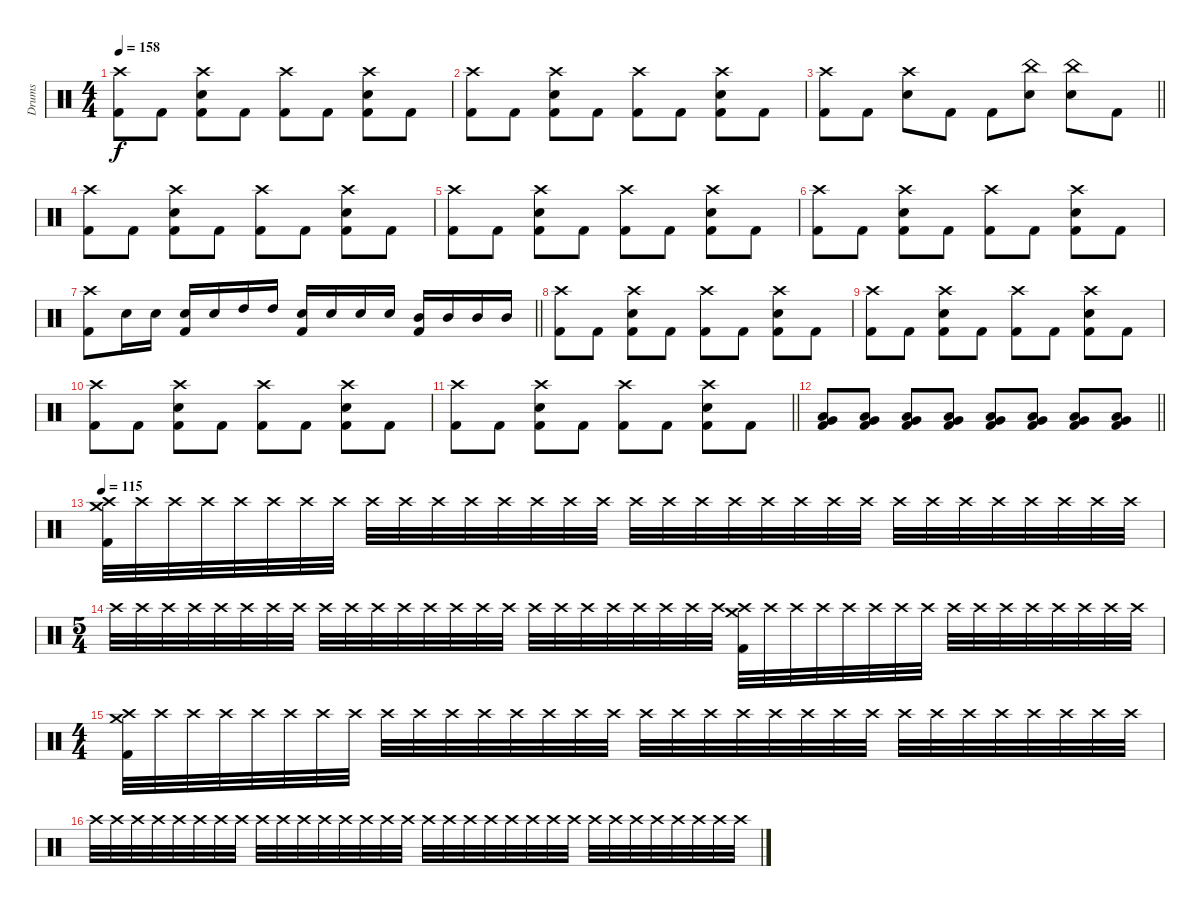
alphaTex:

\track ("Drums" "Drums") {instrument percussion}
\staff {score}
\articulation defaults
\ts (4 4)
\tempo 158
\clef neutral
\ks c
("Crash high (hit)" "Kick (hit) 2").8{dy f} "Kick (hit) 2".8 ("Crash high (hit)" "Snare (hit) 2" "Kick (hit) 2").8 "Kick (hit) 2".8 ("Crash high (hit)" "Kick (hit) 2").8 "Kick (hit) 2".8 ("Crash high (hit)" "Snare (hit) 2" "Kick (hit) 2").8 "Kick (hit) 2".8 |
("Crash high (hit)" "Kick (hit) 2").8 "Kick (hit) 2".8 ("Crash high (hit)" "Snare (hit) 2" "Kick (hit) 2").8 "Kick (hit) 2".8 ("Crash high (hit)" "Kick (hit) 2").8 "Kick (hit) 2".8 ("Crash high (hit)" "Snare (hit) 2" "Kick (hit) 2").8 "Kick (hit) 2".8 |
\barLineRight lightlight
("Crash high (hit)" "Kick (hit) 2").8 "Kick (hit) 2".8 ("Crash high (hit)" "Snare (hit) 2").8 "Kick (hit) 2".8 "Kick (hit) 2".8 ("China (hit)" "Snare (hit) 2").8 ("China (hit)" "Snare (hit) 2").8 "Kick (hit) 2".8 |
("Crash high (hit)" "Kick (hit) 2").8 "Kick (hit) 2".8 ("Crash high (hit)" "Snare (hit) 2" "Kick (hit) 2").8 "Kick (hit) 2".8 ("Crash high (hit)" "Kick (hit) 2").8 "Kick (hit) 2".8 ("Crash high (hit)" "Snare (hit) 2" "Kick (hit) 2").8 "Kick (hit) 2".8 |
("Crash high (hit)" "Kick (hit) 2").8 "Kick (hit) 2".8 ("Crash high (hit)" "Snare (hit) 2" "Kick (hit) 2").8 "Kick (hit) 2".8 ("Crash high (hit)" "Kick (hit) 2").8 "Kick (hit) 2".8 ("Crash high (hit)" "Snare (hit) 2" "Kick (hit) 2").8 "Kick (hit) 2".8 |
("Crash high (hit)" "Kick (hit) 2").8 "Kick (hit) 2".8 ("Crash high (hit)" "Snare (hit) 2" "Kick (hit) 2").8 "Kick (hit) 2".8 ("Crash high (hit)" "Kick (hit) 2").8 "Kick (hit) 2".8 ("Crash high (hit)" "Snare (hit) 2" "Kick (hit) 2").8 "Kick (hit) 2".8 |
\barLineRight lightlight
("Crash high (hit)" "Kick (hit) 2").8 "Snare (hit) 2".16 "Snare (hit) 2".16 ("Snare (hit) 2" "Kick (hit) 2").16 "Snare (hit) 2".16 "High Tom (hit)".16 "High Tom (hit)".16 ("Snare (hit) 2" "Kick (hit) 2").16 "Snare (hit) 2".16 "Snare (hit) 2".16 "Snare (hit) 2".16 ("Mid Tom (hit)" "Kick (hit) 2").16 "Mid Tom (hit)".16 "Mid Tom (hit)".16 "Mid Tom (hit)".16 |
("Crash high (hit)" "Kick (hit) 2").8 "Kick (hit) 2".8 ("Crash high (hit)" "Snare (hit) 2" "Kick (hit) 2").8 "Kick (hit) 2".8 ("Crash high (hit)" "Kick (hit) 2").8 "Kick (hit) 2".8 ("Crash high (hit)" "Snare (hit) 2" "Kick (hit) 2").8 "Kick (hit) 2".8 |
("Crash high (hit)" "Kick (hit) 2").8 "Kick (hit) 2".8 ("Crash high (hit)" "Snare (hit) 2" "Kick (hit) 2").8 "Kick (hit) 2".8 ("Crash high (hit)" "Kick (hit) 2").8 "Kick (hit) 2".8 ("Crash high (hit)" "Snare (hit) 2" "Kick (hit) 2").8 "Kick (hit) 2".8 |
("Crash high (hit)" "Kick (hit) 2").8 "Kick (hit) 2".8 ("Crash high (hit)" "Snare (hit) 2" "Kick (hit) 2").8 "Kick (hit) 2".8 ("Crash high (hit)" "Kick (hit) 2").8 "Kick (hit) 2".8 ("Crash high (hit)" "Snare (hit) 2" "Kick (hit) 2").8 "Kick (hit) 2".8 |
\barLineRight lightlight
("Crash high (hit)" "Kick (hit) 2").8 "Kick (hit) 2".8 ("Crash high (hit)" "Snare (hit) 2" "Kick (hit) 2").8 "Kick (hit) 2".8 ("Crash high (hit)" "Kick (hit) 2").8 "Kick (hit) 2".8 ("Crash high (hit)" "Snare (hit) 2" "Kick (hit) 2").8 "Kick (hit) 2".8 |
\barLineRight lightlight
("Very Low Tom (hit)" "Low Floor Tom (hit)" "Kick (hit) 2").8 ("Very Low Tom (hit)" "Low Floor Tom (hit)" "Kick (hit) 2").8 ("Very Low Tom (hit)" "Low Floor Tom (hit)" "Kick (hit) 2").8 ("Very Low Tom (hit)" "Low Floor Tom (hit)" "Kick (hit) 2").8 ("Very Low Tom (hit)" "Low Floor Tom (hit)" "Kick (hit) 2").8 ("Very Low Tom (hit)" "Low Floor Tom (hit)" "Kick (hit) 2").8 ("Very Low Tom (hit)" "Low Floor Tom (hit)" "Kick (hit) 2").8 ("Very Low Tom (hit)" "Low Floor Tom (hit)" "Kick (hit) 2").8 |
\tempo 115
("Crash medium (hit)" "Crash high (hit)" "Kick (hit) 2").32 "Crash high (hit)".32 "Crash high (hit)".32 "Crash high (hit)".32 "Crash high (hit)".32 "Crash high (hit)".32 "Crash high (hit)".32 "Crash high (hit)".32 "Crash high (hit)".32 "Crash high (hit)".32 "Crash high (hit)".32 "Crash high (hit)".32 "Crash high (hit)".32 "Crash high (hit)".32 "Crash high (hit)".32 "Crash high (hit)".32 "Crash high (hit)".32 "Crash high (hit)".32 "Crash high (hit)".32 "Crash high (hit)".32 "Crash high (hit)".32 "Crash high (hit)".32 "Crash high (hit)".32 "Crash high (hit)".32 "Crash high (hit)".32 "Crash high (hit)".32 "Crash high (hit)".32 "Crash high (hit)".32 "Crash high (hit)".32 "Crash high (hit)".32 "Crash high (hit)".32 "Crash high (hit)".32 |
\ts (5 4)
"Crash high (hit)".32 "Crash high (hit)".32 "Crash high (hit)".32 "Crash high (hit)".32 "Crash high (hit)".32 "Crash high (hit)".32 "Crash high (hit)".32 "Crash high (hit)".32 "Crash high (hit)".32 "Crash high (hit)".32 "Crash high (hit)".32 "Crash high (hit)".32 "Crash high (hit)".32 "Crash high (hit)".32 "Crash high (hit)".32 "Crash high (hit)".32 "Crash high (hit)".32 "Crash high (hit)".32 "Crash high (hit)".32 "Crash high (hit)".32 "Crash high (hit)".32 "Crash high (hit)".32 "Crash high (hit)".32 "Crash high (hit)".32 ("Crash medium (hit)" "Crash high (hit)" "Kick (hit) 2").32 "Crash high (hit)".32 "Crash high (hit)".32 "Crash high (hit)".32 "Crash high (hit)".32 "Crash high (hit)".32 "Crash high (hit)".32 "Crash high (hit)".32 "Crash high (hit)".32 "Crash high (hit)".32 "Crash high (hit)".32 "Crash high (hit)".32 "Crash high (hit)".32 "Crash high (hit)".32 "Crash high (hit)".32 "Crash high (hit)".32 |
\ts (4 4)
("Crash medium (hit)" "Crash high (hit)" "Kick (hit) 2").32 "Crash high (hit)".32 "Crash high (hit)".32 "Crash high (hit)".32 "Crash high (hit)".32 "Crash high (hit)".32 "Crash high (hit)".32 "Crash high (hit)".32 "Crash high (hit)".32 "Crash high (hit)".32 "Crash high (hit)".32 "Crash high (hit)".32 "Crash high (hit)".32 "Crash high (hit)".32 "Crash high (hit)".32 "Crash high (hit)".32 "Crash high (hit)".32 "Crash high (hit)".32 "Crash high (hit)".32 "Crash high (hit)".32 "Crash high (hit)".32 "Crash high (hit)".32 "Crash high (hit)".32 "Crash high (hit)".32 "Crash high (hit)".32 "Crash high (hit)".32 "Crash high (hit)".32 "Crash high (hit)".32 "Crash high (hit)".32 "Crash high (hit)".32 "Crash high (hit)".32 "Crash high (hit)".32 |
"Crash high (hit)".32 "Crash high (hit)".32 "Crash high (hit)".32 "Crash high (hit)".32 "Crash high (hit)".32 "Crash high (hit)".32 "Crash high (hit)".32 "Crash high (hit)".32 "Crash high (hit)".32 "Crash high (hit)".32 "Crash high (hit)".32 "Crash high (hit)".32 "Crash high (hit)".32 "Crash high (hit)".32 "Crash high (hit)".32 "Crash high (hit)".32 "Crash high (hit)".32 "Crash high (hit)".32 "Crash high (hit)".32 "Crash high (hit)".32 "Crash high (hit)".32 "Crash high (hit)".32 "Crash high (hit)".32 "Crash high (hit)".32 "Crash high (hit)".32 "Crash high (hit)".32 "Crash high (hit)".32 "Crash high (hit)".32 "Crash high (hit)".32 "Crash high (hit)".32 "Crash high (hit)".32 "Crash high (hit)".32
